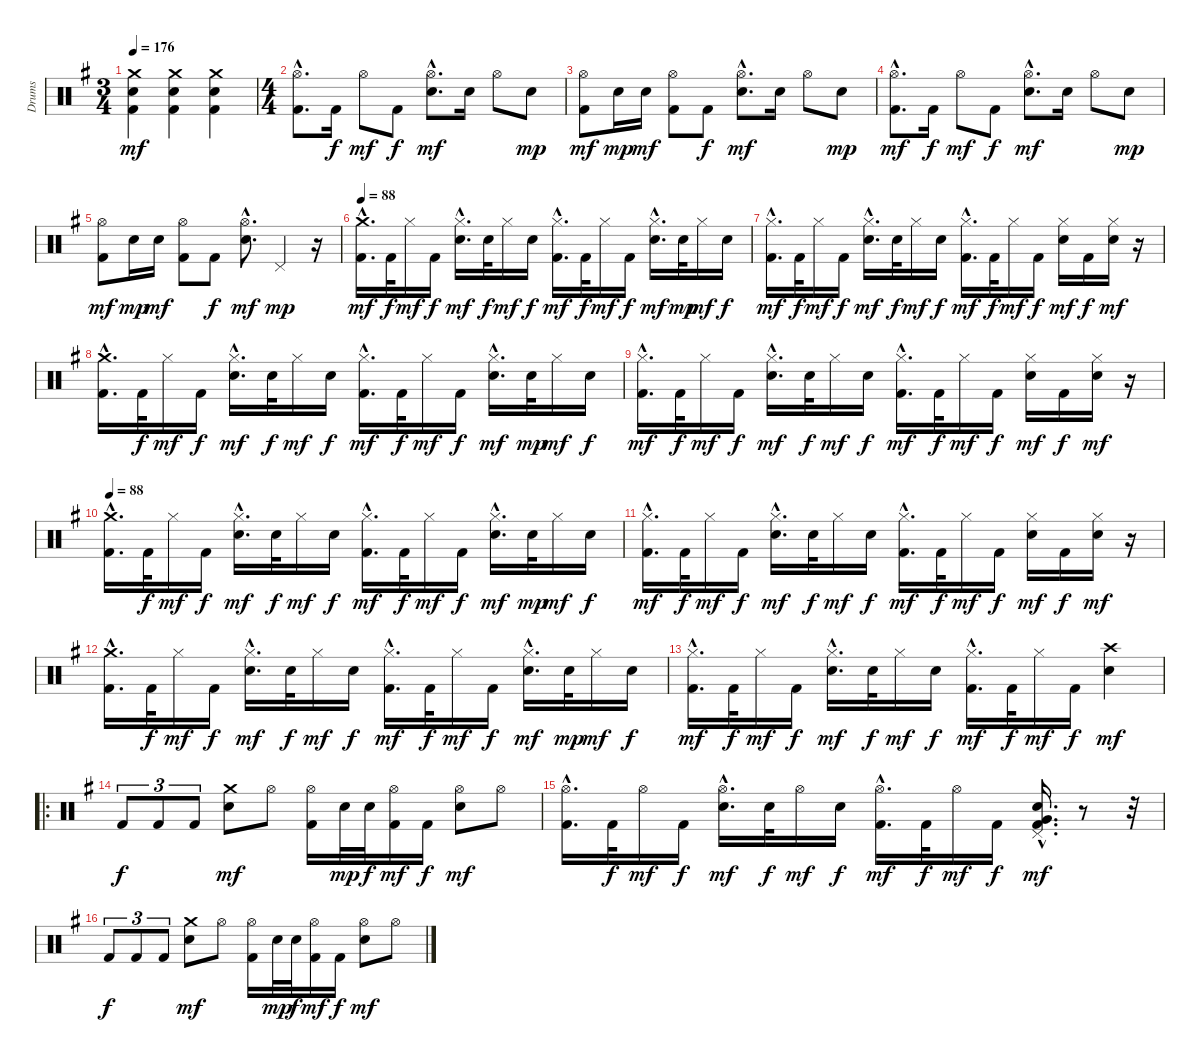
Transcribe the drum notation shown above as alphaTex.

\track ("Drums" "Drums") {instrument percussion}
\staff {score}
\articulation defaults
\ts (3 4)
\tempo 176
\clef neutral
\ks g
("Crash medium (hit)" "Snare (hit) 2" "Kick (hit) 2").4{dy mf} ("Crash medium (hit)" "Snare (hit) 2" "Kick (hit) 2").4 ("Crash medium (hit)" "Snare (hit) 2" "Kick (hit) 2").4 |
\ts (4 4)
("Hi-Hat (open)"{hac} "Kick (hit) 2"{hac}).8{d} "Kick (hit) 2".16{dy f} "Hi-Hat (open)".8{dy mf} "Kick (hit) 2".8{dy f} ("Hi-Hat (open)"{hac} "Snare (hit) 2"{hac}).8{d dy mf} "Snare (hit) 2".16 "Hi-Hat (open)".8 "Snare (hit) 2".8{dy mp} |
("Hi-Hat (open)" "Kick (hit) 2").8{dy mf} "Snare (hit) 2".16{dy mp} "Snare (hit) 2".16{dy mf} ("Hi-Hat (open)" "Kick (hit) 2").8 "Kick (hit) 2".8{dy f} ("Hi-Hat (open)"{hac} "Snare (hit) 2"{hac}).8{d dy mf} "Snare (hit) 2".16 "Hi-Hat (open)".8 "Snare (hit) 2".8{dy mp} |
("Hi-Hat (open)"{hac} "Kick (hit) 2"{hac}).8{d dy mf} "Kick (hit) 2".16{dy f} "Hi-Hat (open)".8{dy mf} "Kick (hit) 2".8{dy f} ("Hi-Hat (open)"{hac} "Snare (hit) 2"{hac}).8{d dy mf} "Snare (hit) 2".16 "Hi-Hat (open)".8 "Snare (hit) 2".8{dy mp} |
("Hi-Hat (open)" "Kick (hit) 2").8{dy mf} "Snare (hit) 2".16{dy mp} "Snare (hit) 2".16{dy mf} ("Hi-Hat (open)" "Kick (hit) 2").8 "Kick (hit) 2".8{dy f} ("Hi-Hat (open)"{hac} "Snare (hit) 2"{hac}).8{d dy mf} "Pedal Hi-Hat (hit)".4{dy mp} r.16 |
\tempo 88
("Crash medium (hit)"{hac} "Kick (hit) 2"{hac}).16{d dy mf} "Kick (hit) 2".32{dy f} "Hi-Hat (closed)".16{dy mf} "Kick (hit) 2".16{dy f} ("Hi-Hat (closed)"{hac} "Snare (hit) 2"{hac}).16{d dy mf} "Snare (hit) 2".32{dy f} "Hi-Hat (closed)".16{dy mf} "Snare (hit) 2".16{dy f} ("Hi-Hat (closed)"{hac} "Kick (hit) 2"{hac}).16{d dy mf} "Kick (hit) 2".32{dy f} "Hi-Hat (closed)".16{dy mf} "Kick (hit) 2".16{dy f} ("Hi-Hat (closed)"{hac} "Snare (hit) 2"{hac}).16{d dy mf} "Snare (hit) 2".32{dy mp} "Hi-Hat (closed)".16{dy mf} "Snare (hit) 2".16{dy f} |
("Hi-Hat (closed)"{hac} "Kick (hit) 2"{hac}).16{d dy mf} "Kick (hit) 2".32{dy f} "Hi-Hat (closed)".16{dy mf} "Kick (hit) 2".16{dy f} ("Hi-Hat (closed)"{hac} "Snare (hit) 2"{hac}).16{d dy mf} "Snare (hit) 2".32{dy f} "Hi-Hat (closed)".16{dy mf} "Snare (hit) 2".16{dy f} ("Hi-Hat (closed)"{hac} "Kick (hit) 2"{hac}).16{d dy mf} "Kick (hit) 2".32{dy f} "Hi-Hat (closed)".16{dy mf} "Kick (hit) 2".16{dy f} ("Hi-Hat (closed)" "Snare (hit) 2").16{dy mf balance 13} "Kick (hit) 2".16{dy f balance 8} ("Hi-Hat (closed)" "Snare (hit) 2").16{dy mf balance 1} r.16{balance 8} |
("Crash medium (hit)"{hac} "Kick (hit) 2"{hac}).16{d} "Kick (hit) 2".32{dy f} "Hi-Hat (closed)".16{dy mf} "Kick (hit) 2".16{dy f} ("Hi-Hat (closed)"{hac} "Snare (hit) 2"{hac}).16{d dy mf} "Snare (hit) 2".32{dy f} "Hi-Hat (closed)".16{dy mf} "Snare (hit) 2".16{dy f} ("Hi-Hat (closed)"{hac} "Kick (hit) 2"{hac}).16{d dy mf} "Kick (hit) 2".32{dy f} "Hi-Hat (closed)".16{dy mf} "Kick (hit) 2".16{dy f} ("Hi-Hat (closed)"{hac} "Snare (hit) 2"{hac}).16{d dy mf balance 12} "Snare (hit) 2".32{dy mp balance 8} "Hi-Hat (closed)".16{dy mf} "Snare (hit) 2".16{dy f balance 4} |
("Hi-Hat (closed)"{hac} "Kick (hit) 2"{hac}).16{d dy mf balance 8} "Kick (hit) 2".32{dy f} "Hi-Hat (closed)".16{dy mf} "Kick (hit) 2".16{dy f} ("Hi-Hat (closed)"{hac} "Snare (hit) 2"{hac}).16{d dy mf} "Snare (hit) 2".32{dy f} "Hi-Hat (closed)".16{dy mf} "Snare (hit) 2".16{dy f} ("Hi-Hat (closed)"{hac} "Kick (hit) 2"{hac}).16{d dy mf} "Kick (hit) 2".32{dy f} "Hi-Hat (closed)".16{dy mf} "Kick (hit) 2".16{dy f} ("Hi-Hat (closed)" "Snare (hit) 2").16{dy mf balance 13} "Kick (hit) 2".16{dy f balance 8} ("Hi-Hat (closed)" "Snare (hit) 2").16{dy mf balance 1} r.16{balance 8} |
\tempo 88
("Crash medium (hit)"{hac} "Kick (hit) 2"{hac}).16{d} "Kick (hit) 2".32{dy f} "Hi-Hat (closed)".16{dy mf} "Kick (hit) 2".16{dy f} ("Hi-Hat (closed)"{hac} "Snare (hit) 2"{hac}).16{d dy mf} "Snare (hit) 2".32{dy f} "Hi-Hat (closed)".16{dy mf} "Snare (hit) 2".16{dy f} ("Hi-Hat (closed)"{hac} "Kick (hit) 2"{hac}).16{d dy mf} "Kick (hit) 2".32{dy f} "Hi-Hat (closed)".16{dy mf} "Kick (hit) 2".16{dy f} ("Hi-Hat (closed)"{hac} "Snare (hit) 2"{hac}).16{d dy mf balance 12} "Snare (hit) 2".32{dy mp balance 8} "Hi-Hat (closed)".16{dy mf} "Snare (hit) 2".16{dy f balance 4} |
("Hi-Hat (closed)"{hac} "Kick (hit) 2"{hac}).16{d dy mf balance 8} "Kick (hit) 2".32{dy f} "Hi-Hat (closed)".16{dy mf} "Kick (hit) 2".16{dy f} ("Hi-Hat (closed)"{hac} "Snare (hit) 2"{hac}).16{d dy mf} "Snare (hit) 2".32{dy f} "Hi-Hat (closed)".16{dy mf} "Snare (hit) 2".16{dy f} ("Hi-Hat (closed)"{hac} "Kick (hit) 2"{hac}).16{d dy mf} "Kick (hit) 2".32{dy f} "Hi-Hat (closed)".16{dy mf} "Kick (hit) 2".16{dy f} ("Hi-Hat (closed)" "Snare (hit) 2").16{dy mf balance 13} "Kick (hit) 2".16{dy f balance 8} ("Hi-Hat (closed)" "Snare (hit) 2").16{dy mf balance 1} r.16{balance 8} |
("Crash medium (hit)"{hac} "Kick (hit) 2"{hac}).16{d} "Kick (hit) 2".32{dy f} "Hi-Hat (closed)".16{dy mf} "Kick (hit) 2".16{dy f} ("Hi-Hat (closed)"{hac} "Snare (hit) 2"{hac}).16{d dy mf} "Snare (hit) 2".32{dy f} "Hi-Hat (closed)".16{dy mf} "Snare (hit) 2".16{dy f} ("Hi-Hat (closed)"{hac} "Kick (hit) 2"{hac}).16{d dy mf} "Kick (hit) 2".32{dy f} "Hi-Hat (closed)".16{dy mf} "Kick (hit) 2".16{dy f} ("Hi-Hat (closed)"{hac} "Snare (hit) 2"{hac}).16{d dy mf balance 12} "Snare (hit) 2".32{dy mp balance 8} "Hi-Hat (closed)".16{dy mf} "Snare (hit) 2".16{dy f balance 4} |
("Hi-Hat (closed)"{hac} "Kick (hit) 2"{hac}).16{d dy mf balance 8} "Kick (hit) 2".32{dy f} "Hi-Hat (closed)".16{dy mf} "Kick (hit) 2".16{dy f} ("Hi-Hat (closed)"{hac} "Snare (hit) 2"{hac}).16{d dy mf} "Snare (hit) 2".32{dy f} "Hi-Hat (closed)".16{dy mf} "Snare (hit) 2".16{dy f} ("Hi-Hat (closed)"{hac} "Kick (hit) 2"{hac}).16{d dy mf} "Kick (hit) 2".32{dy f} "Hi-Hat (closed)".16{dy mf} "Kick (hit) 2".16{dy f} ("Crash high (hit)" "Snare (hit) 2").4{dy mf} |
\ro "Kick (hit) 2".8{tu (3 2) dy f} "Kick (hit) 2".8{tu (3 2)} "Kick (hit) 2".8{tu (3 2)}
("Crash medium (hit)" "Snare (hit) 2").8{dy mf} "Hi-Hat (open)".8 ("Hi-Hat (open)" "Kick (hit) 2").16 "Snare (hit) 2".32{dy mp} "Snare (hit) 2".32{dy f} ("Hi-Hat (open)" "Kick (hit) 2").16{dy mf} "Kick (hit) 2".16{dy f} ("Hi-Hat (open)" "Snare (hit) 2").8{dy mf} "Hi-Hat (open)".8 |
("Hi-Hat (open)"{hac} "Kick (hit) 2"{hac}).16{d} "Kick (hit) 2".32{dy f} "Hi-Hat (open)".16{dy mf} "Kick (hit) 2".16{dy f} ("Hi-Hat (open)"{hac} "Snare (hit) 2"{hac}).16{d dy mf} "Snare (hit) 2".32{dy f} "Hi-Hat (open)".16{dy mf} "Snare (hit) 2".16{dy f} ("Hi-Hat (open)"{hac} "Kick (hit) 2"{hac}).16{d dy mf} "Kick (hit) 2".32{dy f} "Hi-Hat (open)".16{dy mf} "Kick (hit) 2".16{dy f} ("Pedal Hi-Hat (hit)"{hac} "Snare (hit) 2"{hac} "Very Low Tom (hit)"{hac} "Kick (hit) 2"{hac}).16{d dy mf} r.8 r.32 |
"Kick (hit) 2".8{tu (3 2) dy f} "Kick (hit) 2".8{tu (3 2)} "Kick (hit) 2".8{tu (3 2)} ("Crash medium (hit)" "Snare (hit) 2").8{dy mf} "Hi-Hat (open)".8 ("Hi-Hat (open)" "Kick (hit) 2").16 "Snare (hit) 2".32{dy mp} "Snare (hit) 2".32{dy f} ("Hi-Hat (open)" "Kick (hit) 2").16{dy mf} "Kick (hit) 2".16{dy f} ("Hi-Hat (open)" "Snare (hit) 2").8{dy mf} "Hi-Hat (open)".8
